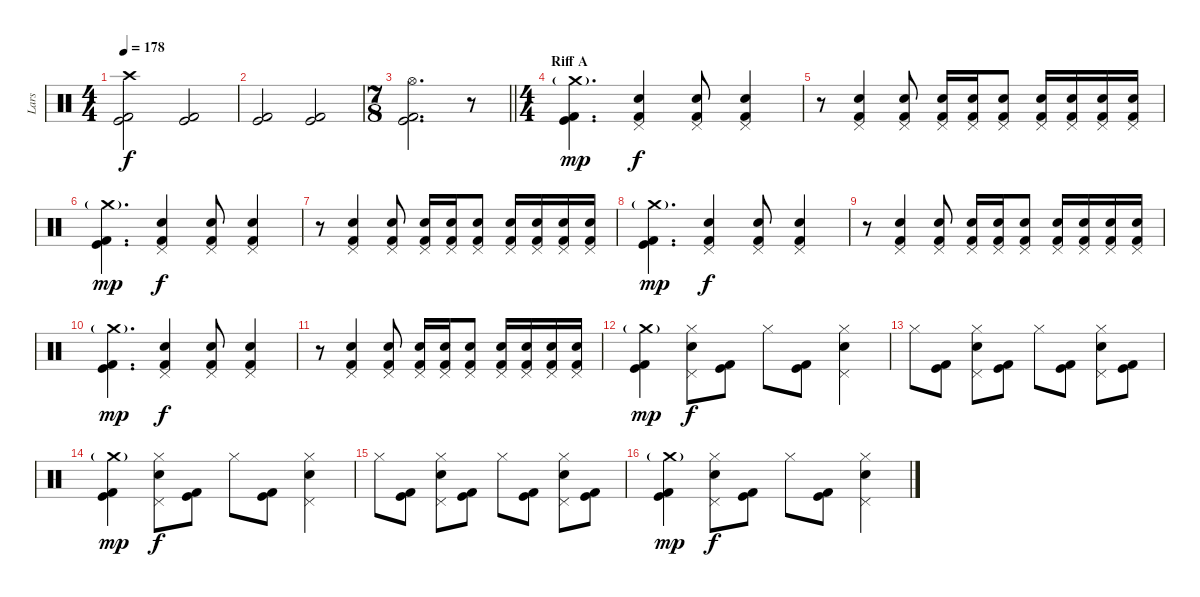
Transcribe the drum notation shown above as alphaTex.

\track ("Lars" "Lars") {instrument percussion}
\staff {score}
\articulation defaults
\ts (4 4)
\tempo 178
\clef neutral
\ks c
("Crash high (hit)" "Kick (hit)" "Kick (hit) 2").2{dy f} ("Kick (hit)" "Kick (hit) 2").2 |
("Kick (hit)" "Kick (hit) 2").2 ("Kick (hit)" "Kick (hit) 2").2 |
\ts (7 8)
\barLineRight lightlight
("Hi-Hat (open)" "Kick (hit)" "Kick (hit) 2").2{d} r.8 |
\ts (4 4)
\section ("" "Riff A")
("Crash medium (hit)"{g} "Kick (hit)" "Kick (hit) 2").4{d dy mp} ("Pedal Hi-Hat (hit)" "Electric Snare (hit)" "Kick (hit) 2").4{dy f} ("Pedal Hi-Hat (hit)" "Electric Snare (hit)" "Kick (hit) 2").8 ("Pedal Hi-Hat (hit)" "Electric Snare (hit)" "Kick (hit) 2").4 |
r.8 ("Pedal Hi-Hat (hit)" "Electric Snare (hit)" "Kick (hit) 2").4 ("Pedal Hi-Hat (hit)" "Electric Snare (hit)" "Kick (hit) 2").8 ("Pedal Hi-Hat (hit)" "Electric Snare (hit)" "Kick (hit) 2").16 ("Pedal Hi-Hat (hit)" "Electric Snare (hit)" "Kick (hit) 2").16 ("Pedal Hi-Hat (hit)" "Electric Snare (hit)" "Kick (hit) 2").8 ("Pedal Hi-Hat (hit)" "Electric Snare (hit)" "Kick (hit) 2").16 ("Pedal Hi-Hat (hit)" "Electric Snare (hit)" "Kick (hit) 2").16 ("Pedal Hi-Hat (hit)" "Electric Snare (hit)" "Kick (hit) 2").16 ("Pedal Hi-Hat (hit)" "Electric Snare (hit)" "Kick (hit) 2").16 |
("Crash medium (hit)"{g} "Kick (hit)" "Kick (hit) 2").4{d dy mp} ("Pedal Hi-Hat (hit)" "Electric Snare (hit)" "Kick (hit) 2").4{dy f} ("Pedal Hi-Hat (hit)" "Electric Snare (hit)" "Kick (hit) 2").8 ("Pedal Hi-Hat (hit)" "Electric Snare (hit)" "Kick (hit) 2").4 |
r.8 ("Pedal Hi-Hat (hit)" "Electric Snare (hit)" "Kick (hit) 2").4 ("Pedal Hi-Hat (hit)" "Electric Snare (hit)" "Kick (hit) 2").8 ("Pedal Hi-Hat (hit)" "Electric Snare (hit)" "Kick (hit) 2").16 ("Pedal Hi-Hat (hit)" "Electric Snare (hit)" "Kick (hit) 2").16 ("Pedal Hi-Hat (hit)" "Electric Snare (hit)" "Kick (hit) 2").8 ("Pedal Hi-Hat (hit)" "Electric Snare (hit)" "Kick (hit) 2").16 ("Pedal Hi-Hat (hit)" "Electric Snare (hit)" "Kick (hit) 2").16 ("Pedal Hi-Hat (hit)" "Electric Snare (hit)" "Kick (hit) 2").16 ("Pedal Hi-Hat (hit)" "Electric Snare (hit)" "Kick (hit) 2").16 |
("Crash medium (hit)"{g} "Kick (hit)" "Kick (hit) 2").4{d dy mp} ("Pedal Hi-Hat (hit)" "Electric Snare (hit)" "Kick (hit) 2").4{dy f} ("Pedal Hi-Hat (hit)" "Electric Snare (hit)" "Kick (hit) 2").8 ("Pedal Hi-Hat (hit)" "Electric Snare (hit)" "Kick (hit) 2").4 |
r.8 ("Pedal Hi-Hat (hit)" "Electric Snare (hit)" "Kick (hit) 2").4 ("Pedal Hi-Hat (hit)" "Electric Snare (hit)" "Kick (hit) 2").8 ("Pedal Hi-Hat (hit)" "Electric Snare (hit)" "Kick (hit) 2").16 ("Pedal Hi-Hat (hit)" "Electric Snare (hit)" "Kick (hit) 2").16 ("Pedal Hi-Hat (hit)" "Electric Snare (hit)" "Kick (hit) 2").8 ("Pedal Hi-Hat (hit)" "Electric Snare (hit)" "Kick (hit) 2").16 ("Pedal Hi-Hat (hit)" "Electric Snare (hit)" "Kick (hit) 2").16 ("Pedal Hi-Hat (hit)" "Electric Snare (hit)" "Kick (hit) 2").16 ("Pedal Hi-Hat (hit)" "Electric Snare (hit)" "Kick (hit) 2").16 |
("Crash medium (hit)"{g} "Kick (hit)" "Kick (hit) 2").4{d dy mp} ("Pedal Hi-Hat (hit)" "Electric Snare (hit)" "Kick (hit) 2").4{dy f} ("Pedal Hi-Hat (hit)" "Electric Snare (hit)" "Kick (hit) 2").8 ("Pedal Hi-Hat (hit)" "Electric Snare (hit)" "Kick (hit) 2").4 |
r.8 ("Pedal Hi-Hat (hit)" "Electric Snare (hit)" "Kick (hit) 2").4 ("Pedal Hi-Hat (hit)" "Electric Snare (hit)" "Kick (hit) 2").8 ("Pedal Hi-Hat (hit)" "Electric Snare (hit)" "Kick (hit) 2").16 ("Pedal Hi-Hat (hit)" "Electric Snare (hit)" "Kick (hit) 2").16 ("Pedal Hi-Hat (hit)" "Electric Snare (hit)" "Kick (hit) 2").8 ("Pedal Hi-Hat (hit)" "Electric Snare (hit)" "Kick (hit) 2").16 ("Pedal Hi-Hat (hit)" "Electric Snare (hit)" "Kick (hit) 2").16 ("Pedal Hi-Hat (hit)" "Electric Snare (hit)" "Kick (hit) 2").16 ("Pedal Hi-Hat (hit)" "Electric Snare (hit)" "Kick (hit) 2").16 |
("Crash medium (hit)"{g} "Kick (hit)" "Kick (hit) 2").4{dy mp} ("Hi-Hat (closed)" "Pedal Hi-Hat (hit)" "Electric Snare (hit)").8{dy f} ("Kick (hit)" "Kick (hit) 2").8 "Hi-Hat (closed)".8 ("Kick (hit)" "Kick (hit) 2").8 ("Hi-Hat (closed)" "Pedal Hi-Hat (hit)" "Electric Snare (hit)").4 |
"Hi-Hat (closed)".8 ("Kick (hit)" "Kick (hit) 2").8 ("Hi-Hat (closed)" "Pedal Hi-Hat (hit)" "Electric Snare (hit)").8 ("Kick (hit)" "Kick (hit) 2").8 "Hi-Hat (closed)".8 ("Kick (hit)" "Kick (hit) 2").8 ("Hi-Hat (closed)" "Pedal Hi-Hat (hit)" "Electric Snare (hit)").8 ("Kick (hit)" "Kick (hit) 2").8 |
("Crash medium (hit)"{g} "Kick (hit)" "Kick (hit) 2").4{dy mp} ("Hi-Hat (closed)" "Pedal Hi-Hat (hit)" "Electric Snare (hit)").8{dy f} ("Kick (hit)" "Kick (hit) 2").8 "Hi-Hat (closed)".8 ("Kick (hit)" "Kick (hit) 2").8 ("Hi-Hat (closed)" "Pedal Hi-Hat (hit)" "Electric Snare (hit)").4 |
"Hi-Hat (closed)".8 ("Kick (hit)" "Kick (hit) 2").8 ("Hi-Hat (closed)" "Pedal Hi-Hat (hit)" "Electric Snare (hit)").8 ("Kick (hit)" "Kick (hit) 2").8 "Hi-Hat (closed)".8 ("Kick (hit)" "Kick (hit) 2").8 ("Hi-Hat (closed)" "Pedal Hi-Hat (hit)" "Electric Snare (hit)").8 ("Kick (hit)" "Kick (hit) 2").8 |
("Crash medium (hit)"{g} "Kick (hit)" "Kick (hit) 2").4{dy mp} ("Hi-Hat (closed)" "Pedal Hi-Hat (hit)" "Electric Snare (hit)").8{dy f} ("Kick (hit)" "Kick (hit) 2").8 "Hi-Hat (closed)".8 ("Kick (hit)" "Kick (hit) 2").8 ("Hi-Hat (closed)" "Pedal Hi-Hat (hit)" "Electric Snare (hit)").4
